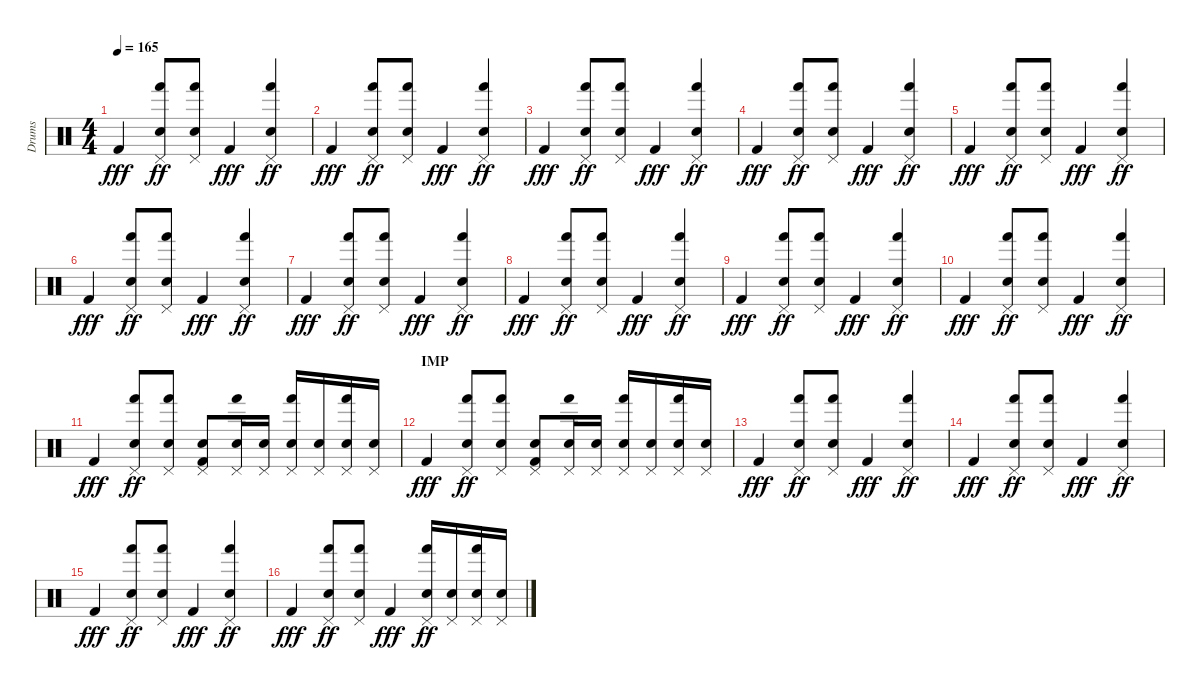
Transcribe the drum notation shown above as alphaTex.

\track ("Drums" "Drums") {instrument percussion}
\staff {score}
\articulation defaults
\ts (4 4)
\tempo 165
\clef neutral
\ks c "Kick (hit) 2".4{dy fff}
("Pedal Hi-Hat (hit)" "Hand (hit)" "Electric Snare (hit)").8{dy ff} ("Pedal Hi-Hat (hit)" "Hand (hit)" "Electric Snare (hit)").8 "Kick (hit) 2".4{dy fff} ("Pedal Hi-Hat (hit)" "Hand (hit)" "Electric Snare (hit)").4{dy ff} |
"Kick (hit) 2".4{dy fff} ("Pedal Hi-Hat (hit)" "Hand (hit)" "Electric Snare (hit)").8{dy ff} ("Pedal Hi-Hat (hit)" "Hand (hit)" "Electric Snare (hit)").8 "Kick (hit) 2".4{dy fff} ("Pedal Hi-Hat (hit)" "Hand (hit)" "Electric Snare (hit)").4{dy ff} |
"Kick (hit) 2".4{dy fff} ("Pedal Hi-Hat (hit)" "Hand (hit)" "Electric Snare (hit)").8{dy ff} ("Pedal Hi-Hat (hit)" "Hand (hit)" "Electric Snare (hit)").8 "Kick (hit) 2".4{dy fff} ("Pedal Hi-Hat (hit)" "Hand (hit)" "Electric Snare (hit)").4{dy ff} |
"Kick (hit) 2".4{dy fff} ("Pedal Hi-Hat (hit)" "Hand (hit)" "Electric Snare (hit)").8{dy ff} ("Pedal Hi-Hat (hit)" "Hand (hit)" "Electric Snare (hit)").8 "Kick (hit) 2".4{dy fff} ("Pedal Hi-Hat (hit)" "Hand (hit)" "Electric Snare (hit)").4{dy ff} |
"Kick (hit) 2".4{dy fff} ("Pedal Hi-Hat (hit)" "Hand (hit)" "Electric Snare (hit)").8{dy ff} ("Pedal Hi-Hat (hit)" "Hand (hit)" "Electric Snare (hit)").8 "Kick (hit) 2".4{dy fff} ("Pedal Hi-Hat (hit)" "Hand (hit)" "Electric Snare (hit)").4{dy ff} |
"Kick (hit) 2".4{dy fff} ("Pedal Hi-Hat (hit)" "Hand (hit)" "Electric Snare (hit)").8{dy ff} ("Pedal Hi-Hat (hit)" "Hand (hit)" "Electric Snare (hit)").8 "Kick (hit) 2".4{dy fff} ("Pedal Hi-Hat (hit)" "Hand (hit)" "Electric Snare (hit)").4{dy ff} |
"Kick (hit) 2".4{dy fff} ("Pedal Hi-Hat (hit)" "Hand (hit)" "Electric Snare (hit)").8{dy ff} ("Pedal Hi-Hat (hit)" "Hand (hit)" "Electric Snare (hit)").8 "Kick (hit) 2".4{dy fff} ("Pedal Hi-Hat (hit)" "Hand (hit)" "Electric Snare (hit)").4{dy ff} |
"Kick (hit) 2".4{dy fff} ("Pedal Hi-Hat (hit)" "Hand (hit)" "Electric Snare (hit)").8{dy ff} ("Pedal Hi-Hat (hit)" "Hand (hit)" "Electric Snare (hit)").8 "Kick (hit) 2".4{dy fff} ("Pedal Hi-Hat (hit)" "Hand (hit)" "Electric Snare (hit)").4{dy ff} |
"Kick (hit) 2".4{dy fff} ("Pedal Hi-Hat (hit)" "Hand (hit)" "Electric Snare (hit)").8{dy ff} ("Pedal Hi-Hat (hit)" "Hand (hit)" "Electric Snare (hit)").8 "Kick (hit) 2".4{dy fff} ("Pedal Hi-Hat (hit)" "Hand (hit)" "Electric Snare (hit)").4{dy ff} |
"Kick (hit) 2".4{dy fff} ("Pedal Hi-Hat (hit)" "Hand (hit)" "Electric Snare (hit)").8{dy ff} ("Pedal Hi-Hat (hit)" "Hand (hit)" "Electric Snare (hit)").8 "Kick (hit) 2".4{dy fff} ("Pedal Hi-Hat (hit)" "Hand (hit)" "Electric Snare (hit)").4{dy ff} |
"Kick (hit) 2".4{dy fff} ("Pedal Hi-Hat (hit)" "Hand (hit)" "Electric Snare (hit)").8{dy ff} ("Pedal Hi-Hat (hit)" "Hand (hit)" "Electric Snare (hit)").8 ("Pedal Hi-Hat (hit)" "Electric Snare (hit)" "Kick (hit) 2").8 ("Pedal Hi-Hat (hit)" "Hand (hit)" "Electric Snare (hit)").16 ("Pedal Hi-Hat (hit)" "Electric Snare (hit)").16 ("Pedal Hi-Hat (hit)" "Hand (hit)" "Electric Snare (hit)").16 ("Pedal Hi-Hat (hit)" "Electric Snare (hit)").16 ("Pedal Hi-Hat (hit)" "Hand (hit)" "Electric Snare (hit)").16 ("Pedal Hi-Hat (hit)" "Electric Snare (hit)").16 |
\section ("" "IMP")
"Kick (hit) 2".4{dy fff} ("Pedal Hi-Hat (hit)" "Hand (hit)" "Electric Snare (hit)").8{dy ff} ("Pedal Hi-Hat (hit)" "Hand (hit)" "Electric Snare (hit)").8 ("Pedal Hi-Hat (hit)" "Electric Snare (hit)" "Kick (hit) 2").8 ("Pedal Hi-Hat (hit)" "Hand (hit)" "Electric Snare (hit)").16 ("Pedal Hi-Hat (hit)" "Electric Snare (hit)").16 ("Pedal Hi-Hat (hit)" "Hand (hit)" "Electric Snare (hit)").16 ("Pedal Hi-Hat (hit)" "Electric Snare (hit)").16 ("Pedal Hi-Hat (hit)" "Hand (hit)" "Electric Snare (hit)").16 ("Pedal Hi-Hat (hit)" "Electric Snare (hit)").16 |
"Kick (hit) 2".4{dy fff} ("Pedal Hi-Hat (hit)" "Hand (hit)" "Electric Snare (hit)").8{dy ff} ("Pedal Hi-Hat (hit)" "Hand (hit)" "Electric Snare (hit)").8 "Kick (hit) 2".4{dy fff} ("Pedal Hi-Hat (hit)" "Hand (hit)" "Electric Snare (hit)").4{dy ff} |
"Kick (hit) 2".4{dy fff} ("Pedal Hi-Hat (hit)" "Hand (hit)" "Electric Snare (hit)").8{dy ff} ("Pedal Hi-Hat (hit)" "Hand (hit)" "Electric Snare (hit)").8 "Kick (hit) 2".4{dy fff} ("Pedal Hi-Hat (hit)" "Hand (hit)" "Electric Snare (hit)").4{dy ff} |
"Kick (hit) 2".4{dy fff} ("Pedal Hi-Hat (hit)" "Hand (hit)" "Electric Snare (hit)").8{dy ff} ("Pedal Hi-Hat (hit)" "Hand (hit)" "Electric Snare (hit)").8 "Kick (hit) 2".4{dy fff} ("Pedal Hi-Hat (hit)" "Hand (hit)" "Electric Snare (hit)").4{dy ff} |
"Kick (hit) 2".4{dy fff} ("Pedal Hi-Hat (hit)" "Hand (hit)" "Electric Snare (hit)").8{dy ff} ("Pedal Hi-Hat (hit)" "Hand (hit)" "Electric Snare (hit)").8 "Kick (hit) 2".4{dy fff} ("Pedal Hi-Hat (hit)" "Hand (hit)" "Electric Snare (hit)").16{dy ff} ("Pedal Hi-Hat (hit)" "Electric Snare (hit)").16 ("Pedal Hi-Hat (hit)" "Hand (hit)" "Electric Snare (hit)").16 ("Pedal Hi-Hat (hit)" "Electric Snare (hit)").16
